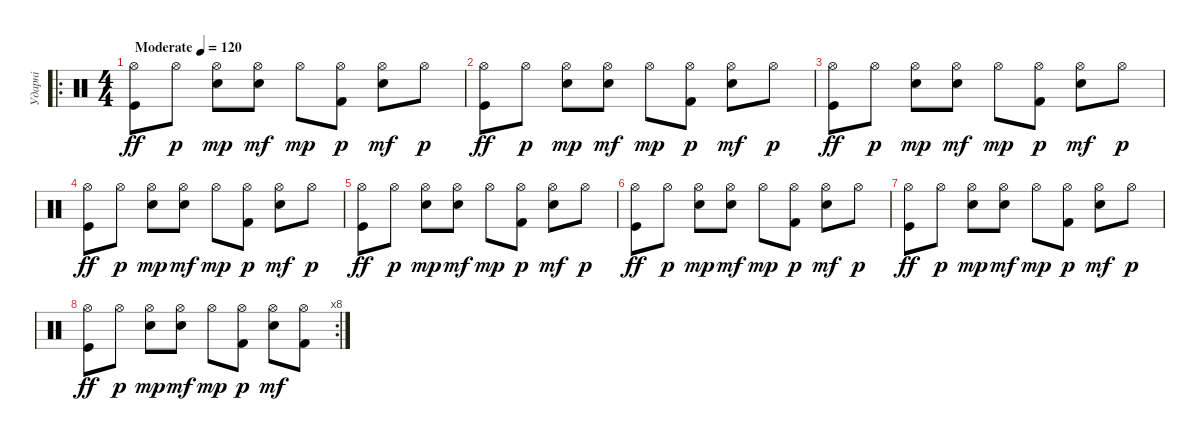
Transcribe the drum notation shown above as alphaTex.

\track ("Ударні" "Ударні") {instrument percussion}
\staff {score}
\articulation defaults
\ro
\ts (4 4)
\tempo (120 "Moderate")
\clef neutral
\ks c
("Hi-Hat (open)" "Kick (hit)").8{dy ff} "Hi-Hat (open)".8{dy p} ("Hi-Hat (open)" "Snare (hit) 2").8{dy mp} ("Hi-Hat (open)" "Snare (hit) 2").8{dy mf} "Hi-Hat (open)".8{dy mp} ("Hi-Hat (open)" "Kick (hit) 2").8{dy p} ("Hi-Hat (open)" "Snare (hit) 2").8{dy mf} "Hi-Hat (open)".8{dy p} |
("Hi-Hat (open)" "Kick (hit)").8{dy ff} "Hi-Hat (open)".8{dy p} ("Hi-Hat (open)" "Snare (hit) 2").8{dy mp} ("Hi-Hat (open)" "Snare (hit) 2").8{dy mf} "Hi-Hat (open)".8{dy mp} ("Hi-Hat (open)" "Kick (hit) 2").8{dy p} ("Hi-Hat (open)" "Snare (hit) 2").8{dy mf} "Hi-Hat (open)".8{dy p} |
("Hi-Hat (open)" "Kick (hit)").8{dy ff} "Hi-Hat (open)".8{dy p} ("Hi-Hat (open)" "Snare (hit) 2").8{dy mp} ("Hi-Hat (open)" "Snare (hit) 2").8{dy mf} "Hi-Hat (open)".8{dy mp} ("Hi-Hat (open)" "Kick (hit) 2").8{dy p} ("Hi-Hat (open)" "Snare (hit) 2").8{dy mf} "Hi-Hat (open)".8{dy p} |
("Hi-Hat (open)" "Kick (hit)").8{dy ff} "Hi-Hat (open)".8{dy p} ("Hi-Hat (open)" "Snare (hit) 2").8{dy mp} ("Hi-Hat (open)" "Snare (hit) 2").8{dy mf} "Hi-Hat (open)".8{dy mp} ("Hi-Hat (open)" "Kick (hit) 2").8{dy p} ("Hi-Hat (open)" "Snare (hit) 2").8{dy mf} "Hi-Hat (open)".8{dy p} |
("Hi-Hat (open)" "Kick (hit)").8{dy ff} "Hi-Hat (open)".8{dy p} ("Hi-Hat (open)" "Snare (hit) 2").8{dy mp} ("Hi-Hat (open)" "Snare (hit) 2").8{dy mf} "Hi-Hat (open)".8{dy mp} ("Hi-Hat (open)" "Kick (hit) 2").8{dy p} ("Hi-Hat (open)" "Snare (hit) 2").8{dy mf} "Hi-Hat (open)".8{dy p} |
("Hi-Hat (open)" "Kick (hit)").8{dy ff} "Hi-Hat (open)".8{dy p} ("Hi-Hat (open)" "Snare (hit) 2").8{dy mp} ("Hi-Hat (open)" "Snare (hit) 2").8{dy mf} "Hi-Hat (open)".8{dy mp} ("Hi-Hat (open)" "Kick (hit) 2").8{dy p} ("Hi-Hat (open)" "Snare (hit) 2").8{dy mf} "Hi-Hat (open)".8{dy p} |
("Hi-Hat (open)" "Kick (hit)").8{dy ff} "Hi-Hat (open)".8{dy p} ("Hi-Hat (open)" "Snare (hit) 2").8{dy mp} ("Hi-Hat (open)" "Snare (hit) 2").8{dy mf} "Hi-Hat (open)".8{dy mp} ("Hi-Hat (open)" "Kick (hit) 2").8{dy p} ("Hi-Hat (open)" "Snare (hit) 2").8{dy mf} "Hi-Hat (open)".8{dy p} |
\rc 8
("Hi-Hat (open)" "Kick (hit)").8{dy ff} "Hi-Hat (open)".8{dy p} ("Hi-Hat (open)" "Snare (hit) 2").8{dy mp} ("Hi-Hat (open)" "Snare (hit) 2").8{dy mf} "Hi-Hat (open)".8{dy mp} ("Hi-Hat (open)" "Kick (hit) 2").8{dy p} ("Hi-Hat (open)" "Snare (hit) 2").8{dy mf} ("Hi-Hat (open)" "Kick (hit) 2").8
